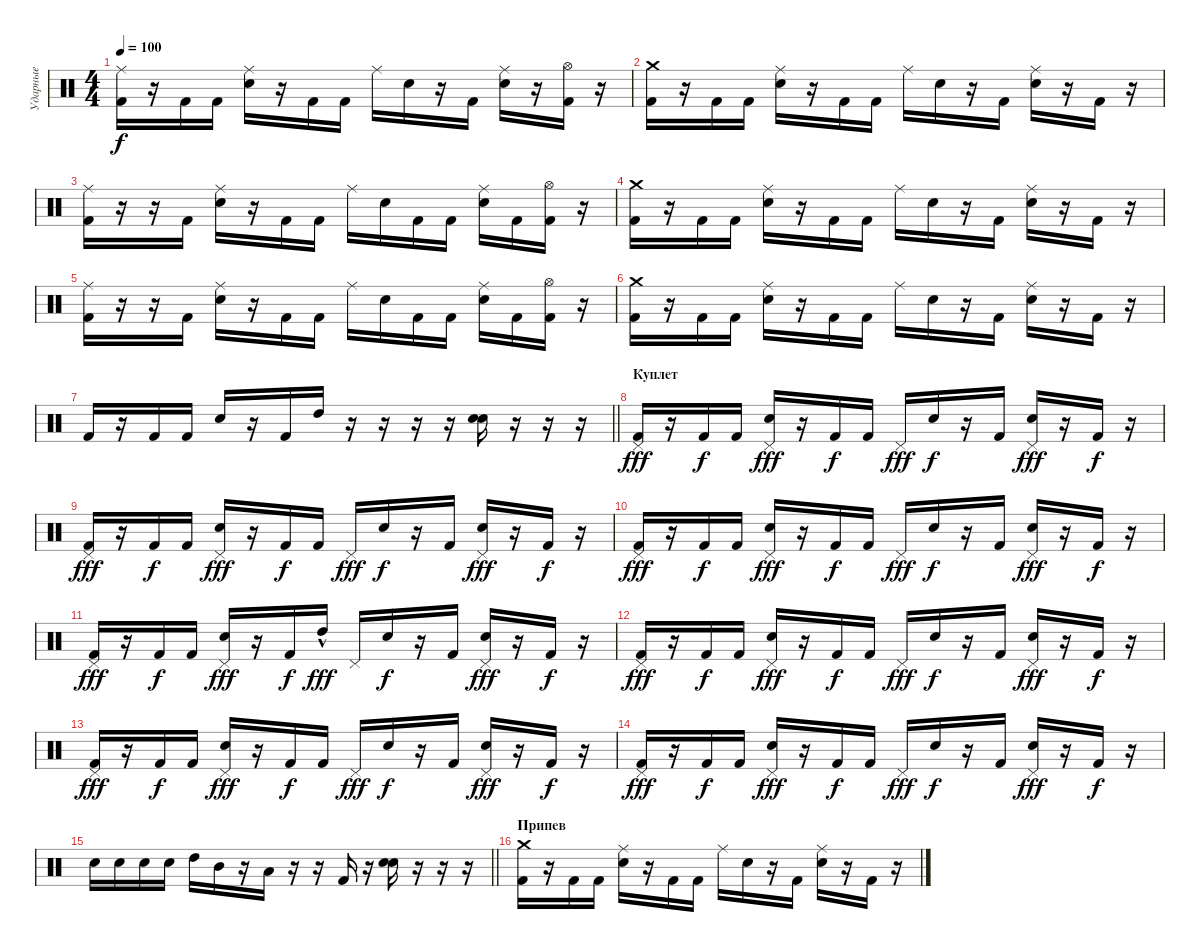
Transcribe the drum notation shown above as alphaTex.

\track ("Ударные" "Ударные") {instrument percussion}
\staff {score}
\articulation defaults
\ts (4 4)
\tempo 100
\clef neutral
\ks c
("Kick (hit) 2" "Ride (middle)").16{dy f} r.16 "Kick (hit) 2".16 "Kick (hit) 2".16 ("Electric Snare (hit)" "Ride (middle)").16 r.16 "Kick (hit) 2".16 "Kick (hit) 2".16 "Ride (middle)".16 "Electric Snare (hit)".16 r.16 "Kick (hit) 2".16 ("Electric Snare (hit)" "Ride (middle)").16 r.16 ("Kick (hit) 2" "Hi-Hat (open)").16 r.16 |
("Kick (hit) 2" "Crash medium (hit)").16 r.16 "Kick (hit) 2".16 "Kick (hit) 2".16 ("Electric Snare (hit)" "Ride (middle)").16 r.16 "Kick (hit) 2".16 "Kick (hit) 2".16 "Ride (middle)".16 "Electric Snare (hit)".16 r.16 "Kick (hit) 2".16 ("Electric Snare (hit)" "Ride (middle)").16 r.16 "Kick (hit) 2".16 r.16 |
("Kick (hit) 2" "Ride (middle)").16 r.16 r.16 "Kick (hit) 2".16 ("Electric Snare (hit)" "Ride (middle)").16 r.16 "Kick (hit) 2".16 "Kick (hit) 2".16 "Ride (middle)".16 "Electric Snare (hit)".16 "Kick (hit) 2".16 "Kick (hit) 2".16 ("Electric Snare (hit)" "Ride (middle)").16 "Kick (hit) 2".16 ("Kick (hit) 2" "Hi-Hat (open)").16 r.16 |
("Kick (hit) 2" "Crash medium (hit)").16 r.16 "Kick (hit) 2".16 "Kick (hit) 2".16 ("Electric Snare (hit)" "Ride (middle)").16 r.16 "Kick (hit) 2".16 "Kick (hit) 2".16 "Ride (middle)".16 "Electric Snare (hit)".16 r.16 "Kick (hit) 2".16 ("Electric Snare (hit)" "Ride (middle)").16 r.16 "Kick (hit) 2".16 r.16 |
("Kick (hit) 2" "Ride (middle)").16 r.16 r.16 "Kick (hit) 2".16 ("Electric Snare (hit)" "Ride (middle)").16 r.16 "Kick (hit) 2".16 "Kick (hit) 2".16 "Ride (middle)".16 "Electric Snare (hit)".16 "Kick (hit) 2".16 "Kick (hit) 2".16 ("Electric Snare (hit)" "Ride (middle)").16 "Kick (hit) 2".16 ("Kick (hit) 2" "Hi-Hat (open)").16 r.16 |
("Kick (hit) 2" "Crash medium (hit)").16 r.16 "Kick (hit) 2".16 "Kick (hit) 2".16 ("Electric Snare (hit)" "Ride (middle)").16 r.16 "Kick (hit) 2".16 "Kick (hit) 2".16 "Ride (middle)".16 "Electric Snare (hit)".16 r.16 "Kick (hit) 2".16 ("Electric Snare (hit)" "Ride (middle)").16 r.16 "Kick (hit) 2".16 r.16 |
\barLineRight lightlight "Kick (hit) 2".16
r.16 "Kick (hit) 2".16 "Kick (hit) 2".16 "Electric Snare (hit)".16 r.16 "Kick (hit) 2".16 "High Tom (hit)".16 r.16 r.16 r.16 r.16 ("Electric Snare (hit)" "Electric Snare (hit)").16 r.16 r.16 r.16 |
\section ("" "Куплет")
("Kick (hit) 2" "Pedal Hi-Hat (hit)").16{dy fff} r.16 "Kick (hit) 2".16{dy f} "Kick (hit) 2".16 ("Electric Snare (hit)" "Pedal Hi-Hat (hit)").16{dy fff} r.16 "Kick (hit) 2".16{dy f} "Kick (hit) 2".16 "Pedal Hi-Hat (hit)".16{dy fff} "Electric Snare (hit)".16{dy f} r.16 "Kick (hit) 2".16 ("Electric Snare (hit)" "Pedal Hi-Hat (hit)").16{dy fff} r.16 "Kick (hit) 2".16{dy f} r.16 |
("Kick (hit) 2" "Pedal Hi-Hat (hit)").16{dy fff} r.16 "Kick (hit) 2".16{dy f} "Kick (hit) 2".16 ("Electric Snare (hit)" "Pedal Hi-Hat (hit)").16{dy fff} r.16 "Kick (hit) 2".16{dy f} "Kick (hit) 2".16 "Pedal Hi-Hat (hit)".16{dy fff} "Electric Snare (hit)".16{dy f} r.16 "Kick (hit) 2".16 ("Electric Snare (hit)" "Pedal Hi-Hat (hit)").16{dy fff} r.16 "Kick (hit) 2".16{dy f} r.16 |
("Kick (hit) 2" "Pedal Hi-Hat (hit)").16{dy fff} r.16 "Kick (hit) 2".16{dy f} "Kick (hit) 2".16 ("Electric Snare (hit)" "Pedal Hi-Hat (hit)").16{dy fff} r.16 "Kick (hit) 2".16{dy f} "Kick (hit) 2".16 "Pedal Hi-Hat (hit)".16{dy fff} "Electric Snare (hit)".16{dy f} r.16 "Kick (hit) 2".16 ("Electric Snare (hit)" "Pedal Hi-Hat (hit)").16{dy fff} r.16 "Kick (hit) 2".16{dy f} r.16 |
("Kick (hit) 2" "Pedal Hi-Hat (hit)").16{dy fff} r.16 "Kick (hit) 2".16{dy f} "Kick (hit) 2".16 ("Electric Snare (hit)" "Pedal Hi-Hat (hit)").16{dy fff} r.16 "Kick (hit) 2".16{dy f} "High Tom (hit)"{hac}.16{dy fff} "Pedal Hi-Hat (hit)".16 "Electric Snare (hit)".16{dy f} r.16 "Kick (hit) 2".16 ("Electric Snare (hit)" "Pedal Hi-Hat (hit)").16{dy fff} r.16 "Kick (hit) 2".16{dy f} r.16 |
("Kick (hit) 2" "Pedal Hi-Hat (hit)").16{dy fff} r.16 "Kick (hit) 2".16{dy f} "Kick (hit) 2".16 ("Electric Snare (hit)" "Pedal Hi-Hat (hit)").16{dy fff} r.16 "Kick (hit) 2".16{dy f} "Kick (hit) 2".16 "Pedal Hi-Hat (hit)".16{dy fff} "Electric Snare (hit)".16{dy f} r.16 "Kick (hit) 2".16 ("Electric Snare (hit)" "Pedal Hi-Hat (hit)").16{dy fff} r.16 "Kick (hit) 2".16{dy f} r.16 |
("Kick (hit) 2" "Pedal Hi-Hat (hit)").16{dy fff} r.16 "Kick (hit) 2".16{dy f} "Kick (hit) 2".16 ("Electric Snare (hit)" "Pedal Hi-Hat (hit)").16{dy fff} r.16 "Kick (hit) 2".16{dy f} "Kick (hit) 2".16 "Pedal Hi-Hat (hit)".16{dy fff} "Electric Snare (hit)".16{dy f} r.16 "Kick (hit) 2".16 ("Electric Snare (hit)" "Pedal Hi-Hat (hit)").16{dy fff} r.16 "Kick (hit) 2".16{dy f} r.16 |
("Kick (hit) 2" "Pedal Hi-Hat (hit)").16{dy fff} r.16 "Kick (hit) 2".16{dy f} "Kick (hit) 2".16 ("Electric Snare (hit)" "Pedal Hi-Hat (hit)").16{dy fff} r.16 "Kick (hit) 2".16{dy f} "Kick (hit) 2".16 "Pedal Hi-Hat (hit)".16{dy fff} "Electric Snare (hit)".16{dy f} r.16 "Kick (hit) 2".16 ("Electric Snare (hit)" "Pedal Hi-Hat (hit)").16{dy fff} r.16 "Kick (hit) 2".16{dy f} r.16 |
\barLineRight lightlight "Electric Snare (hit)".16 "Electric Snare (hit)".16 "Electric Snare (hit)".16 "Electric Snare (hit)".16 "High Tom (hit)".16 "Mid Tom (hit)".16
r.16 "Low Tom (hit)".16 r.16 r.16 "Kick (hit) 2".16 r.16 ("Electric Snare (hit)" "Electric Snare (hit)").16{bd 120} r.16 r.16 r.16 |
\section ("" "Припев")
("Kick (hit) 2" "Crash medium (hit)").16 r.16 "Kick (hit) 2".16 "Kick (hit) 2".16 ("Electric Snare (hit)" "Ride (middle)").16 r.16 "Kick (hit) 2".16 "Kick (hit) 2".16 "Ride (middle)".16 "Electric Snare (hit)".16 r.16 "Kick (hit) 2".16 ("Electric Snare (hit)" "Ride (middle)").16 r.16 "Kick (hit) 2".16 r.16
